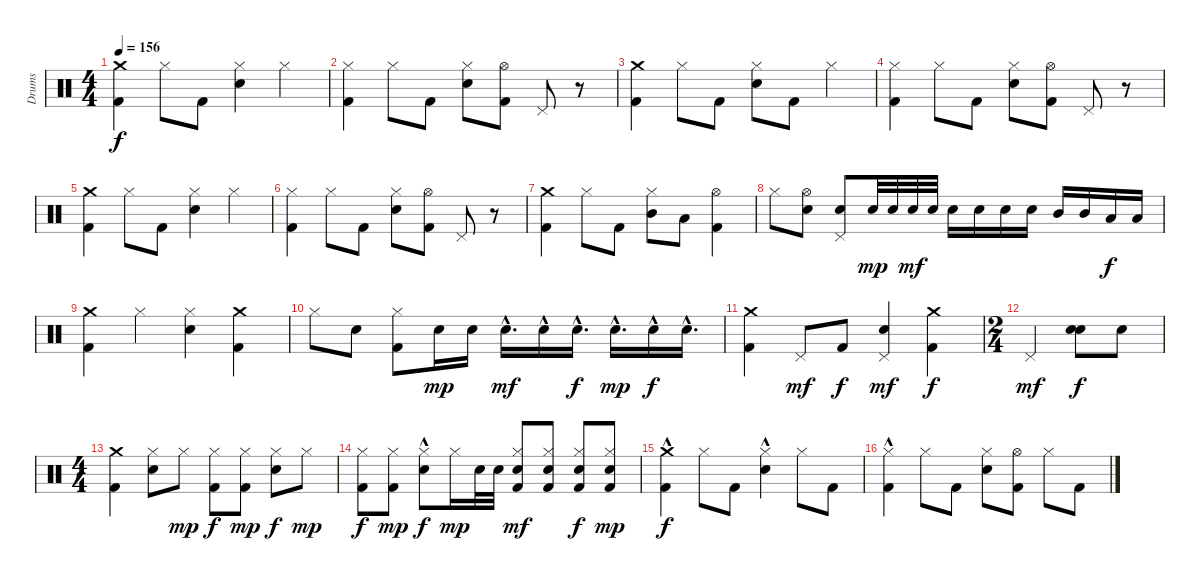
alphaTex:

\track ("Drums" "Drums") {instrument percussion}
\staff {score}
\articulation defaults
\ts (4 4)
\tempo 156
\clef neutral
\ks c
("Crash medium (hit)" "Kick (hit) 2").4{dy f} "Hi-Hat (closed)".8 "Kick (hit) 2".8 ("Hi-Hat (closed)" "Snare (hit) 2").4 "Hi-Hat (closed)".4 |
("Hi-Hat (closed)" "Kick (hit) 2").4 "Hi-Hat (closed)".8 "Kick (hit) 2".8 ("Hi-Hat (closed)" "Snare (hit) 2").8 ("Hi-Hat (open)" "Kick (hit) 2").8 "Pedal Hi-Hat (hit)".8 r.8 |
("Kick (hit) 2" "Crash medium (hit)").4 "Hi-Hat (closed)".8 "Kick (hit) 2".8 ("Snare (hit) 2" "Hi-Hat (closed)").8 "Kick (hit) 2".8 "Hi-Hat (closed)".4 |
("Kick (hit) 2" "Hi-Hat (closed)").4 "Hi-Hat (closed)".8 "Kick (hit) 2".8 ("Snare (hit) 2" "Hi-Hat (closed)").8 ("Kick (hit) 2" "Hi-Hat (open)").8 "Pedal Hi-Hat (hit)".8 r.8 |
("Crash medium (hit)" "Kick (hit) 2").4 "Hi-Hat (closed)".8 "Kick (hit) 2".8 ("Hi-Hat (closed)" "Snare (hit) 2").4 "Hi-Hat (closed)".4 |
("Hi-Hat (closed)" "Kick (hit) 2").4 "Hi-Hat (closed)".8 "Kick (hit) 2".8 ("Hi-Hat (closed)" "Snare (hit) 2").8 ("Hi-Hat (open)" "Kick (hit) 2").8 "Pedal Hi-Hat (hit)".8 r.8 |
("Crash medium (hit)" "Kick (hit) 2").4 "Hi-Hat (closed)".8 "Kick (hit) 2".8 ("Hi-Hat (closed)" "Mid Tom (hit)").8 "Low Tom (hit)".8 ("Kick (hit) 2" "Hi-Hat (open)").4 |
"Hi-Hat (closed)".8 ("Hi-Hat (open)" "Snare (hit) 2").8 ("Pedal Hi-Hat (hit)" "Snare (hit) 2").8 "Snare (hit) 2".32{dy mp} "Snare (hit) 2".32 "Snare (hit) 2".32{dy mf} "Snare (hit) 2".32 "Snare (hit) 2".16 "Snare (hit) 2".16 "Snare (hit) 2".16 "Snare (hit) 2".16 "Mid Tom (hit)".16 "Mid Tom (hit)".16 "Low Tom (hit)".16{dy f} "Low Tom (hit)".16 |
("Kick (hit) 2" "Crash medium (hit)").4 "Hi-Hat (closed)".4 ("Hi-Hat (closed)" "Snare (hit) 2").4 ("Crash medium (hit)" "Kick (hit) 2").4 |
"Hi-Hat (closed)".8 "Snare (hit) 2".8 ("Hi-Hat (closed)" "Kick (hit) 2").8 "Snare (hit) 2".16{dy mp} "Snare (hit) 2".16 "Snare (hit) 2"{hac}.16{d dy mf} "Snare (hit) 2"{hac}.16 "Snare (hit) 2"{hac}.16{d dy f} "Snare (hit) 2"{hac}.16{d dy mp} "Snare (hit) 2"{hac}.16{dy f} "Snare (hit) 2"{hac}.16{d} |
("Crash medium (hit)" "Kick (hit) 2").4 "Pedal Hi-Hat (hit)".8{dy mf} "Kick (hit) 2".8{dy f} ("Pedal Hi-Hat (hit)" "Snare (hit) 2").4{dy mf} ("Crash medium (hit)" "Kick (hit) 2").4{dy f} |
\ts (2 4)
"Pedal Hi-Hat (hit)".4{dy mf} ("Snare (hit) 2" "Snare (hit) 2").8{dy f} "Snare (hit) 2".8 |
\ts (4 4)
("Crash medium (hit)" "Kick (hit) 2").4 ("Hi-Hat (closed)" "Snare (hit) 2").8 "Hi-Hat (closed)".8{dy mp} ("Hi-Hat (closed)" "Kick (hit) 2").8{dy f} ("Hi-Hat (closed)" "Kick (hit) 2").8{dy mp} ("Hi-Hat (closed)" "Snare (hit) 2").8{dy f} "Hi-Hat (closed)".8{dy mp} |
("Hi-Hat (closed)" "Kick (hit) 2").8{dy f} ("Hi-Hat (closed)" "Kick (hit) 2").8{dy mp} ("Snare (hit) 2"{hac} "Hi-Hat (closed)").8{dy f} "Hi-Hat (closed)".16{dy mp} "Snare (hit) 2".32 "Snare (hit) 2".32 ("Hi-Hat (closed)" "Snare (hit) 2" "Kick (hit) 2").8{dy mf} ("Hi-Hat (closed)" "Snare (hit) 2" "Kick (hit) 2").8 ("Hi-Hat (closed)" "Snare (hit) 2" "Kick (hit) 2").8{dy f} ("Hi-Hat (closed)" "Snare (hit) 2" "Kick (hit) 2").8{dy mp} |
("Crash medium (hit)" "Kick (hit) 2"{hac}).4{dy f} "Hi-Hat (closed)".8 "Kick (hit) 2".8 ("Hi-Hat (closed)" "Snare (hit) 2"{hac}).4 "Hi-Hat (closed)".8 "Kick (hit) 2".8 |
("Hi-Hat (closed)" "Kick (hit) 2"{hac}).4 "Hi-Hat (closed)".8 "Kick (hit) 2".8 ("Hi-Hat (closed)" "Snare (hit) 2").8 ("Hi-Hat (open)" "Kick (hit) 2").8 "Hi-Hat (closed)".8 "Kick (hit) 2".8
